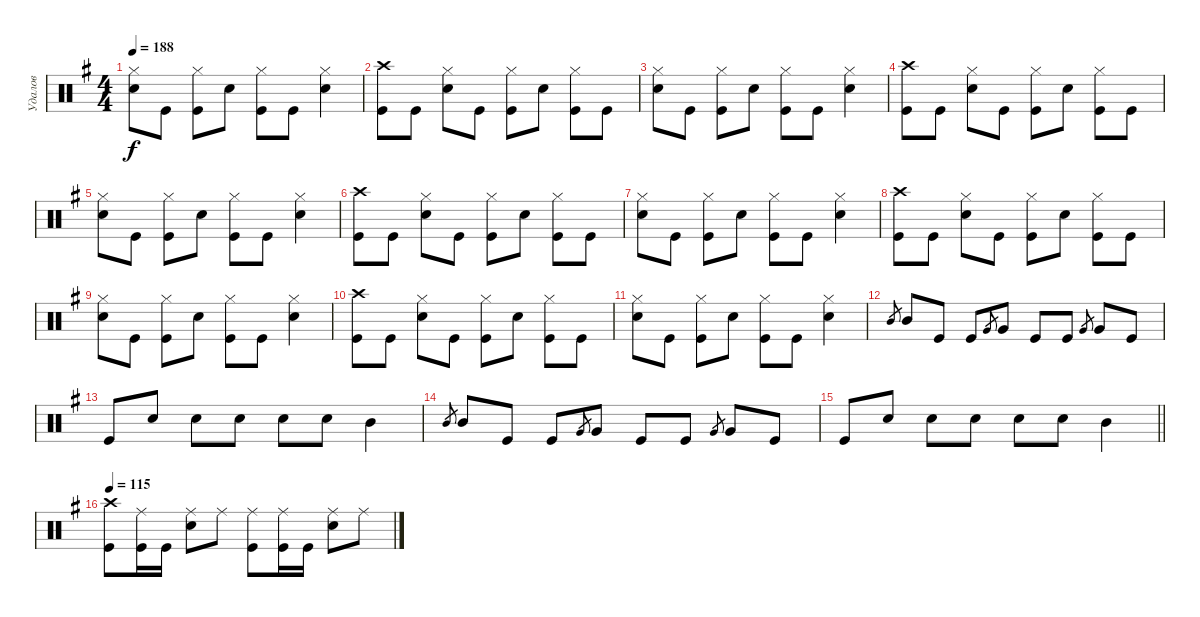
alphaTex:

\track ("Удалов" "Удалов") {instrument percussion}
\staff {score}
\articulation defaults
\ts (4 4)
\tempo 188
\clef neutral
\ks g
("Hi-Hat (closed)" "Electric Snare (hit)").8{dy f} "Kick (hit)".8 ("Hi-Hat (closed)" "Kick (hit)").8 "Electric Snare (hit)".8 ("Hi-Hat (closed)" "Kick (hit)").8 "Kick (hit)".8 ("Hi-Hat (closed)" "Electric Snare (hit)").4 |
("Crash high (hit)" "Kick (hit)").8 "Kick (hit)".8 ("Hi-Hat (closed)" "Electric Snare (hit)").8 "Kick (hit)".8 ("Hi-Hat (closed)" "Kick (hit)").8 "Electric Snare (hit)".8 ("Kick (hit)" "Hi-Hat (closed)").8 "Kick (hit)".8 |
("Hi-Hat (closed)" "Electric Snare (hit)").8 "Kick (hit)".8 ("Hi-Hat (closed)" "Kick (hit)").8 "Electric Snare (hit)".8 ("Hi-Hat (closed)" "Kick (hit)").8 "Kick (hit)".8 ("Hi-Hat (closed)" "Electric Snare (hit)").4 |
("Crash high (hit)" "Kick (hit)").8 "Kick (hit)".8 ("Hi-Hat (closed)" "Electric Snare (hit)").8 "Kick (hit)".8 ("Hi-Hat (closed)" "Kick (hit)").8 "Electric Snare (hit)".8 ("Kick (hit)" "Hi-Hat (closed)").8 "Kick (hit)".8 |
("Hi-Hat (closed)" "Electric Snare (hit)").8 "Kick (hit)".8 ("Hi-Hat (closed)" "Kick (hit)").8 "Electric Snare (hit)".8 ("Hi-Hat (closed)" "Kick (hit)").8 "Kick (hit)".8 ("Hi-Hat (closed)" "Electric Snare (hit)").4 |
("Crash high (hit)" "Kick (hit)").8 "Kick (hit)".8 ("Hi-Hat (closed)" "Electric Snare (hit)").8 "Kick (hit)".8 ("Hi-Hat (closed)" "Kick (hit)").8 "Electric Snare (hit)".8 ("Kick (hit)" "Hi-Hat (closed)").8 "Kick (hit)".8 |
("Hi-Hat (closed)" "Electric Snare (hit)").8 "Kick (hit)".8 ("Hi-Hat (closed)" "Kick (hit)").8 "Electric Snare (hit)".8 ("Hi-Hat (closed)" "Kick (hit)").8 "Kick (hit)".8 ("Hi-Hat (closed)" "Electric Snare (hit)").4 |
("Crash high (hit)" "Kick (hit)").8 "Kick (hit)".8 ("Hi-Hat (closed)" "Electric Snare (hit)").8 "Kick (hit)".8 ("Hi-Hat (closed)" "Kick (hit)").8 "Electric Snare (hit)".8 ("Kick (hit)" "Hi-Hat (closed)").8 "Kick (hit)".8 |
("Hi-Hat (closed)" "Electric Snare (hit)").8 "Kick (hit)".8 ("Hi-Hat (closed)" "Kick (hit)").8 "Electric Snare (hit)".8 ("Hi-Hat (closed)" "Kick (hit)").8 "Kick (hit)".8 ("Hi-Hat (closed)" "Electric Snare (hit)").4 |
("Crash high (hit)" "Kick (hit)").8 "Kick (hit)".8 ("Hi-Hat (closed)" "Electric Snare (hit)").8 "Kick (hit)".8 ("Hi-Hat (closed)" "Kick (hit)").8 "Electric Snare (hit)".8 ("Kick (hit)" "Hi-Hat (closed)").8 "Kick (hit)".8 |
("Hi-Hat (closed)" "Electric Snare (hit)").8 "Kick (hit)".8 ("Hi-Hat (closed)" "Kick (hit)").8 "Electric Snare (hit)".8 ("Hi-Hat (closed)" "Kick (hit)").8 "Kick (hit)".8 ("Hi-Hat (closed)" "Electric Snare (hit)").4 |
"Mid Tom (hit)".8{gr} "Mid Tom (hit)".8 "Kick (hit)".8 "Kick (hit)".8 "Very Low Tom (hit)".8{gr} "Very Low Tom (hit)".8 "Kick (hit)".8 "Kick (hit)".8 "Very Low Tom (hit)".8{gr} "Very Low Tom (hit)".8 "Kick (hit)".8 |
"Kick (hit)".8 "Electric Snare (hit)".8 "Electric Snare (hit)".8 "Electric Snare (hit)".8 "Electric Snare (hit)".8 "Electric Snare (hit)".8 "Mid Tom (hit)".4 |
"Mid Tom (hit)".8{gr} "Mid Tom (hit)".8 "Kick (hit)".8 "Kick (hit)".8 "Very Low Tom (hit)".8{gr} "Very Low Tom (hit)".8 "Kick (hit)".8 "Kick (hit)".8 "Very Low Tom (hit)".8{gr} "Very Low Tom (hit)".8 "Kick (hit)".8 |
\barLineRight lightlight "Kick (hit)".8 "Electric Snare (hit)".8 "Electric Snare (hit)".8 "Electric Snare (hit)".8 "Electric Snare (hit)".8 "Electric Snare (hit)".8 "Mid Tom (hit)".4
|
\tempo 115
("Crash high (hit)" "Kick (hit)").8 ("Ride (middle)" "Kick (hit)").16 "Kick (hit)".16 ("Ride (middle)" "Electric Snare (hit)").8 "Ride (middle)".8 ("Ride (middle)" "Kick (hit)").8 ("Ride (middle)" "Kick (hit)").16 "Kick (hit)".16 ("Ride (middle)" "Electric Snare (hit)").8 "Ride (middle)".8
